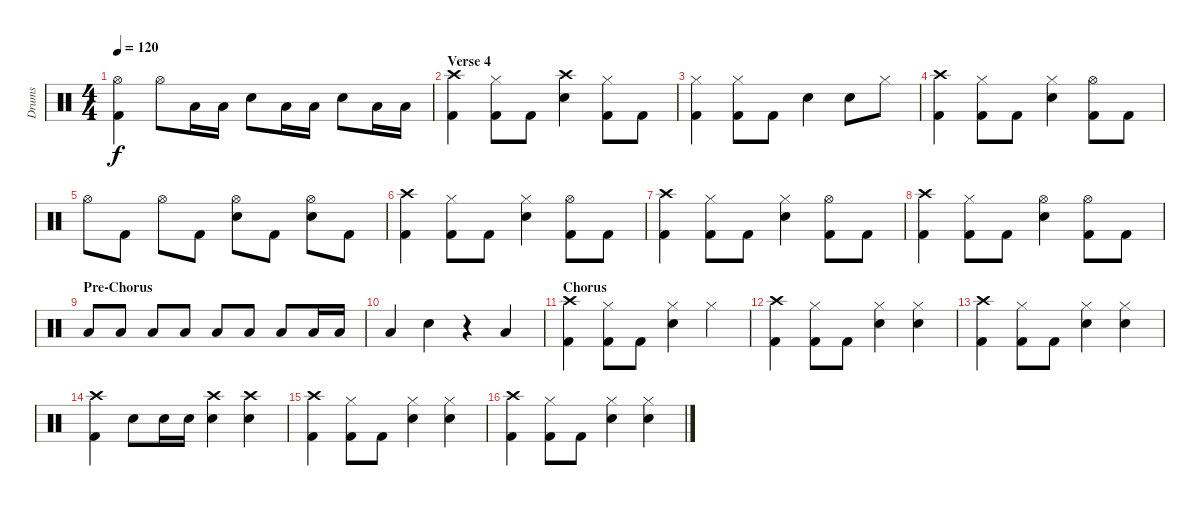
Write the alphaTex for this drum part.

\track ("Drums" "Drums") {instrument percussion}
\staff {score}
\articulation defaults
\ts (4 4)
\tempo 120
\clef neutral
\ks c
("Hi-Hat (open)" "Kick (hit) 2").4{dy f} "Hi-Hat (open)".8 "Low Tom (hit)".16 "Low Tom (hit)".16 "Snare (hit) 2".8 "Low Tom (hit)".16 "Low Tom (hit)".16 "Snare (hit) 2".8 "Low Tom (hit)".16 "Low Tom (hit)".16 |
\section ("" "Verse 4")
("Crash high (hit)" "Kick (hit) 2").4 ("Hi-Hat (closed)" "Kick (hit) 2").8 "Kick (hit) 2".8 ("Crash high (hit)" "Snare (hit) 2").4 ("Hi-Hat (closed)" "Kick (hit) 2").8 "Kick (hit) 2".8 |
("Hi-Hat (closed)" "Kick (hit) 2").4 ("Hi-Hat (closed)" "Kick (hit) 2").8 "Kick (hit) 2".8 "Snare (hit) 2".4 "Snare (hit) 2".8 "Hi-Hat (closed)".8 |
("Crash high (hit)" "Kick (hit) 2").4 ("Hi-Hat (closed)" "Kick (hit) 2").8 "Kick (hit) 2".8 ("Hi-Hat (closed)" "Snare (hit) 2").4 ("Hi-Hat (open)" "Kick (hit) 2").8 "Kick (hit) 2".8 |
"Hi-Hat (open)".8 "Kick (hit) 2".8 "Hi-Hat (open)".8 "Kick (hit) 2".8 ("Hi-Hat (open)" "Snare (hit) 2").8 "Kick (hit) 2".8 ("Hi-Hat (open)" "Snare (hit) 2").8 "Kick (hit) 2".8 |
("Crash high (hit)" "Kick (hit) 2").4 ("Hi-Hat (closed)" "Kick (hit) 2").8 "Kick (hit) 2".8 ("Hi-Hat (closed)" "Snare (hit) 2").4 ("Hi-Hat (open)" "Kick (hit) 2").8 "Kick (hit) 2".8 |
("Crash high (hit)" "Kick (hit) 2").4 ("Hi-Hat (closed)" "Kick (hit) 2").8 "Kick (hit) 2".8 ("Hi-Hat (closed)" "Snare (hit) 2").4 ("Hi-Hat (open)" "Kick (hit) 2").8 "Kick (hit) 2".8 |
("Crash high (hit)" "Kick (hit) 2").4 ("Hi-Hat (closed)" "Kick (hit) 2").8 "Kick (hit) 2".8 ("Hi-Hat (open)" "Snare (hit) 2").4 ("Hi-Hat (open)" "Kick (hit) 2").8 "Kick (hit) 2".8 |
\section ("" "Pre-Chorus")
"Low Tom (hit)".8 "Low Tom (hit)".8 "Low Tom (hit)".8 "Low Tom (hit)".8 "Low Tom (hit)".8 "Low Tom (hit)".8 "Low Tom (hit)".8 "Low Tom (hit)".16 "Low Tom (hit)".16 |
"Low Tom (hit)".4 "Snare (hit) 2".4 r.4 "Low Tom (hit)".4 |
\section ("" "Chorus")
("Crash high (hit)" "Kick (hit) 2").4 ("Hi-Hat (closed)" "Kick (hit) 2").8 "Kick (hit) 2".8 ("Hi-Hat (closed)" "Snare (hit) 2").4 "Hi-Hat (closed)".4 |
("Crash high (hit)" "Kick (hit) 2").4 ("Hi-Hat (closed)" "Kick (hit) 2").8 "Kick (hit) 2".8 ("Hi-Hat (closed)" "Snare (hit) 2").4 ("Hi-Hat (closed)" "Snare (hit) 2").4 |
("Crash high (hit)" "Kick (hit) 2").4 ("Hi-Hat (closed)" "Kick (hit) 2").8 "Kick (hit) 2".8 ("Hi-Hat (closed)" "Snare (hit) 2").4 ("Hi-Hat (closed)" "Snare (hit) 2").4 |
("Crash high (hit)" "Kick (hit) 2").4 "Snare (hit) 2".8 "Snare (hit) 2".16 "Snare (hit) 2".16 ("Crash high (hit)" "Snare (hit) 2").4 ("Crash high (hit)" "Snare (hit) 2").4 |
("Crash high (hit)" "Kick (hit) 2").4 ("Hi-Hat (closed)" "Kick (hit) 2").8 "Kick (hit) 2".8 ("Hi-Hat (closed)" "Snare (hit) 2").4 ("Hi-Hat (closed)" "Snare (hit) 2").4 |
("Crash high (hit)" "Kick (hit) 2").4 ("Hi-Hat (closed)" "Kick (hit) 2").8 "Kick (hit) 2".8 ("Hi-Hat (closed)" "Snare (hit) 2").4 ("Hi-Hat (closed)" "Snare (hit) 2").4
